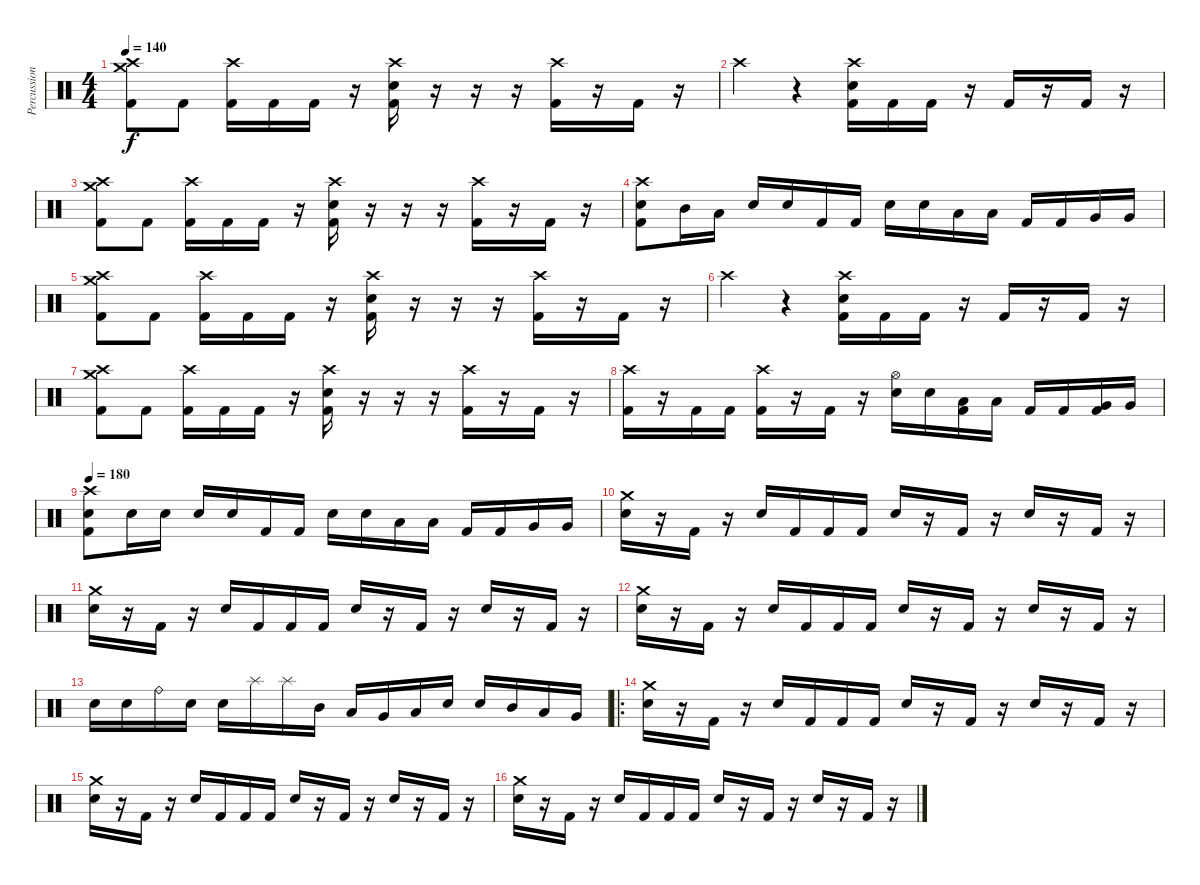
\track ("Percussion" "Percussion") {instrument percussion}
\staff {score}
\articulation defaults
\ts (4 4)
\tempo 140
\clef neutral
\ks c
("Crash high (hit)" "Crash medium (hit)" "Kick (hit) 2").8{dy f} "Kick (hit) 2".8 ("Crash high (hit)" "Kick (hit) 2").16 "Kick (hit) 2".16 "Kick (hit) 2".16 r.16 ("Crash high (hit)" "Electric Snare (hit)" "Kick (hit) 2").16 r.16 r.16 r.16 ("Crash high (hit)" "Kick (hit) 2").16 r.16 "Kick (hit) 2".16 r.16 |
"Crash high (hit)".4 r.4 ("Crash high (hit)" "Electric Snare (hit)" "Kick (hit) 2").16 "Kick (hit) 2".16 "Kick (hit) 2".16 r.16 "Kick (hit) 2".16 r.16 "Kick (hit) 2".16 r.16 |
("Crash high (hit)" "Crash medium (hit)" "Kick (hit) 2").8 "Kick (hit) 2".8 ("Crash high (hit)" "Kick (hit) 2").16 "Kick (hit) 2".16 "Kick (hit) 2".16 r.16 ("Crash high (hit)" "Electric Snare (hit)" "Kick (hit) 2").16 r.16 r.16 r.16 ("Crash high (hit)" "Kick (hit) 2").16 r.16 "Kick (hit) 2".16 r.16 |
("Crash high (hit)" "Electric Snare (hit)" "Kick (hit) 2").8 "Mid Tom (hit)".16 "Low Tom (hit)".16 "Electric Snare (hit)".16 "Electric Snare (hit)".16 "Kick (hit) 2".16 "Kick (hit) 2".16 "Electric Snare (hit)".16 "Electric Snare (hit)".16 "Low Tom (hit)".16 "Low Tom (hit)".16 "Kick (hit) 2".16 "Kick (hit) 2".16 "Very Low Tom (hit)".16 "Very Low Tom (hit)".16 |
("Crash high (hit)" "Crash medium (hit)" "Kick (hit) 2").8 "Kick (hit) 2".8 ("Crash high (hit)" "Kick (hit) 2").16 "Kick (hit) 2".16 "Kick (hit) 2".16 r.16 ("Crash high (hit)" "Electric Snare (hit)" "Kick (hit) 2").16 r.16 r.16 r.16 ("Crash high (hit)" "Kick (hit) 2").16 r.16 "Kick (hit) 2".16 r.16 |
"Crash high (hit)".4 r.4 ("Crash high (hit)" "Electric Snare (hit)" "Kick (hit) 2").16 "Kick (hit) 2".16 "Kick (hit) 2".16 r.16 "Kick (hit) 2".16 r.16 "Kick (hit) 2".16 r.16 |
("Crash high (hit)" "Crash medium (hit)" "Kick (hit) 2").8 "Kick (hit) 2".8 ("Crash high (hit)" "Kick (hit) 2").16 "Kick (hit) 2".16 "Kick (hit) 2".16 r.16 ("Crash high (hit)" "Electric Snare (hit)" "Kick (hit) 2").16 r.16 r.16 r.16 ("Crash high (hit)" "Kick (hit) 2").16 r.16 "Kick (hit) 2".16 r.16 |
("Crash high (hit)" "Kick (hit) 2").16 r.16 "Kick (hit) 2".16 "Kick (hit) 2".16 ("Crash high (hit)" "Kick (hit) 2").16 r.16 "Kick (hit) 2".16 r.16 ("Hi-Hat (open)" "Electric Snare (hit)").16 "Electric Snare (hit)".16 ("Low Tom (hit)" "Kick (hit) 2").16 "Low Tom (hit)".16 "Kick (hit) 2".16 "Kick (hit) 2".16 ("Very Low Tom (hit)" "Kick (hit) 2").16 "Very Low Tom (hit)".16 |
\tempo 180
("Crash high (hit)" "Electric Snare (hit)" "Kick (hit) 2").8 "Electric Snare (hit)".16 "Electric Snare (hit)".16 "Electric Snare (hit)".16 "Electric Snare (hit)".16 "Kick (hit) 2".16 "Kick (hit) 2".16 "Electric Snare (hit)".16 "Electric Snare (hit)".16 "Low Tom (hit)".16 "Low Tom (hit)".16 "Kick (hit) 2".16 "Kick (hit) 2".16 "Very Low Tom (hit)".16 "Very Low Tom (hit)".16 |
("Crash medium (hit)" "Electric Snare (hit)").16 r.16 "Kick (hit) 2".16 r.16 "Electric Snare (hit)".16 "Kick (hit) 2".16 "Kick (hit) 2".16 "Kick (hit) 2".16 "Electric Snare (hit)".16 r.16 "Kick (hit) 2".16 r.16 "Electric Snare (hit)".16 r.16 "Kick (hit) 2".16 r.16 |
("Crash medium (hit)" "Electric Snare (hit)").16 r.16 "Kick (hit) 2".16 r.16 "Electric Snare (hit)".16 "Kick (hit) 2".16 "Kick (hit) 2".16 "Kick (hit) 2".16 "Electric Snare (hit)".16 r.16 "Kick (hit) 2".16 r.16 "Electric Snare (hit)".16 r.16 "Kick (hit) 2".16 r.16 |
("Crash medium (hit)" "Electric Snare (hit)").16 r.16 "Kick (hit) 2".16 r.16 "Electric Snare (hit)".16 "Kick (hit) 2".16 "Kick (hit) 2".16 "Kick (hit) 2".16 "Electric Snare (hit)".16 r.16 "Kick (hit) 2".16 r.16 "Electric Snare (hit)".16 r.16 "Kick (hit) 2".16 r.16 |
"Electric Snare (hit)".16 "Electric Snare (hit)".16 "Ride (bell)".16 "Electric Snare (hit)".16 "Electric Snare (hit)".16 "Splash (hit)".16 "Splash (hit)".16 "Mid Tom (hit)".16 "Low Tom (hit)".16 "Very Low Tom (hit)".16 "Low Floor Tom (hit)".16 "Electric Snare (hit)".16 "Electric Snare (hit)".16 "Mid Tom (hit)".16 "Low Tom (hit)".16 "Very Low Tom (hit)".16 |
\ro
("Crash medium (hit)" "Electric Snare (hit)").16 r.16 "Kick (hit) 2".16 r.16 "Electric Snare (hit)".16 "Kick (hit) 2".16 "Kick (hit) 2".16 "Kick (hit) 2".16 "Electric Snare (hit)".16 r.16 "Kick (hit) 2".16 r.16 "Electric Snare (hit)".16 r.16 "Kick (hit) 2".16 r.16 |
("Crash medium (hit)" "Electric Snare (hit)").16 r.16 "Kick (hit) 2".16 r.16 "Electric Snare (hit)".16 "Kick (hit) 2".16 "Kick (hit) 2".16 "Kick (hit) 2".16 "Electric Snare (hit)".16 r.16 "Kick (hit) 2".16 r.16 "Electric Snare (hit)".16 r.16 "Kick (hit) 2".16 r.16 |
("Crash medium (hit)" "Electric Snare (hit)").16 r.16 "Kick (hit) 2".16 r.16 "Electric Snare (hit)".16 "Kick (hit) 2".16 "Kick (hit) 2".16 "Kick (hit) 2".16 "Electric Snare (hit)".16 r.16 "Kick (hit) 2".16 r.16 "Electric Snare (hit)".16 r.16 "Kick (hit) 2".16 r.16
